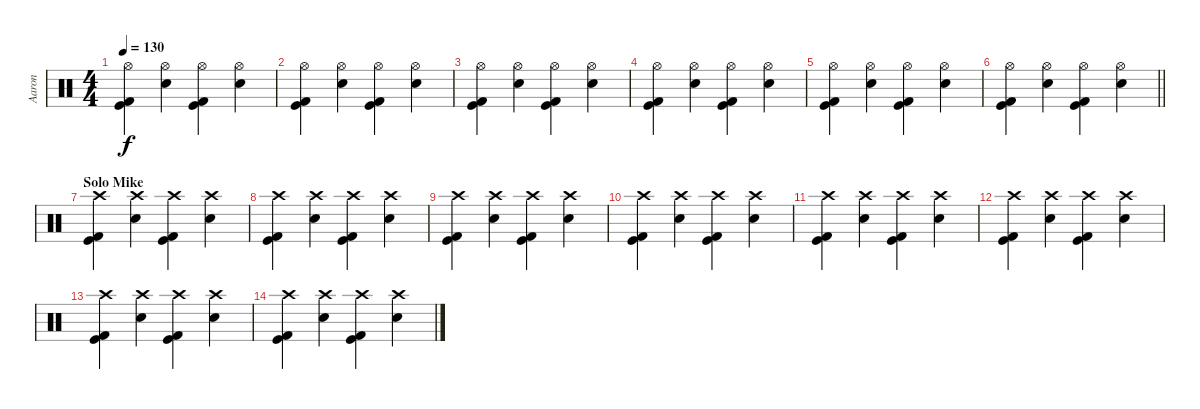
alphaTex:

\track ("Aaron" "Aaron") {instrument percussion}
\staff {score}
\articulation defaults
\ts (4 4)
\tempo 130
\clef neutral
\ks c
("Hi-Hat (open)" "Kick (hit)" "Kick (hit) 2").4{dy f} ("Hi-Hat (open)" "Snare (hit) 2").4 ("Hi-Hat (open)" "Kick (hit) 2" "Kick (hit)").4 ("Hi-Hat (open)" "Snare (hit) 2").4 |
("Hi-Hat (open)" "Kick (hit)" "Kick (hit) 2").4 ("Hi-Hat (open)" "Snare (hit) 2").4 ("Hi-Hat (open)" "Kick (hit) 2" "Kick (hit)").4 ("Hi-Hat (open)" "Snare (hit) 2").4 |
("Hi-Hat (open)" "Kick (hit)" "Kick (hit) 2").4 ("Hi-Hat (open)" "Snare (hit) 2").4 ("Hi-Hat (open)" "Kick (hit) 2" "Kick (hit)").4 ("Hi-Hat (open)" "Snare (hit) 2").4 |
("Hi-Hat (open)" "Kick (hit)" "Kick (hit) 2").4 ("Hi-Hat (open)" "Snare (hit) 2").4 ("Hi-Hat (open)" "Kick (hit) 2" "Kick (hit)").4 ("Hi-Hat (open)" "Snare (hit) 2").4 |
("Hi-Hat (open)" "Kick (hit)" "Kick (hit) 2").4 ("Hi-Hat (open)" "Snare (hit) 2").4 ("Hi-Hat (open)" "Kick (hit) 2" "Kick (hit)").4 ("Hi-Hat (open)" "Snare (hit) 2").4 |
\barLineRight lightlight
("Hi-Hat (open)" "Kick (hit)" "Kick (hit) 2").4 ("Hi-Hat (open)" "Snare (hit) 2").4 ("Hi-Hat (open)" "Kick (hit) 2" "Kick (hit)").4 ("Hi-Hat (open)" "Snare (hit) 2").4 |
\section ("" "Solo Mike")
("Crash high (hit)" "Kick (hit)" "Kick (hit) 2").4 ("Crash high (hit)" "Snare (hit) 2").4 ("Crash high (hit)" "Kick (hit) 2" "Kick (hit)").4 ("Crash high (hit)" "Snare (hit) 2").4 |
("Crash high (hit)" "Kick (hit)" "Kick (hit) 2").4 ("Crash high (hit)" "Snare (hit) 2").4 ("Crash high (hit)" "Kick (hit) 2" "Kick (hit)").4 ("Crash high (hit)" "Snare (hit) 2").4 |
("Crash high (hit)" "Kick (hit)" "Kick (hit) 2").4 ("Crash high (hit)" "Snare (hit) 2").4 ("Crash high (hit)" "Kick (hit) 2" "Kick (hit)").4 ("Crash high (hit)" "Snare (hit) 2").4 |
("Crash high (hit)" "Kick (hit)" "Kick (hit) 2").4 ("Crash high (hit)" "Snare (hit) 2").4 ("Crash high (hit)" "Kick (hit) 2" "Kick (hit)").4 ("Crash high (hit)" "Snare (hit) 2").4 |
("Crash high (hit)" "Kick (hit)" "Kick (hit) 2").4 ("Crash high (hit)" "Snare (hit) 2").4 ("Crash high (hit)" "Kick (hit) 2" "Kick (hit)").4 ("Crash high (hit)" "Snare (hit) 2").4 |
("Crash high (hit)" "Kick (hit)" "Kick (hit) 2").4 ("Crash high (hit)" "Snare (hit) 2").4 ("Crash high (hit)" "Kick (hit) 2" "Kick (hit)").4 ("Crash high (hit)" "Snare (hit) 2").4 |
("Crash high (hit)" "Kick (hit)" "Kick (hit) 2").4 ("Crash high (hit)" "Snare (hit) 2").4 ("Crash high (hit)" "Kick (hit) 2" "Kick (hit)").4 ("Crash high (hit)" "Snare (hit) 2").4 |
("Crash high (hit)" "Kick (hit)" "Kick (hit) 2").4 ("Crash high (hit)" "Snare (hit) 2").4 ("Crash high (hit)" "Kick (hit) 2" "Kick (hit)").4 ("Crash high (hit)" "Snare (hit) 2").4
